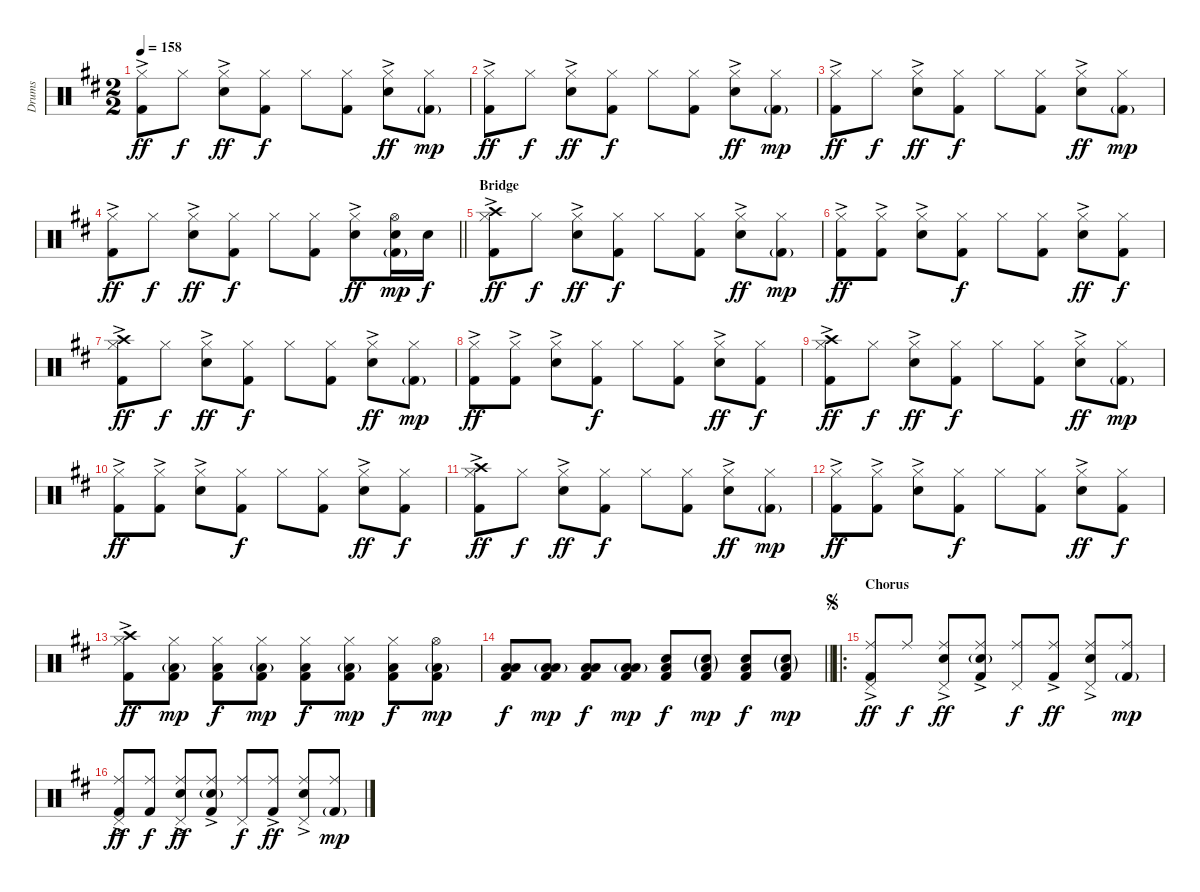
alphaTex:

\track ("Drums" "Drums") {instrument percussion}
\staff {score}
\articulation defaults
\ts (2 2)
\tempo 158
\clef neutral
\ks d
("Hi-Hat (closed)" "Kick (hit) 2"{ac}).8{dy ff} "Hi-Hat (closed)".8{dy f} ("Hi-Hat (closed)" "Snare (hit) 2"{ac}).8{dy ff} ("Hi-Hat (closed)" "Kick (hit) 2").8{dy f} "Hi-Hat (closed)".8 ("Hi-Hat (closed)" "Kick (hit) 2").8 ("Hi-Hat (closed)" "Snare (hit) 2"{ac}).8{dy ff} ("Hi-Hat (closed)" "Kick (hit) 2"{g}).8{dy mp} |
("Hi-Hat (closed)" "Kick (hit) 2"{ac}).8{dy ff} "Hi-Hat (closed)".8{dy f} ("Hi-Hat (closed)" "Snare (hit) 2"{ac}).8{dy ff} ("Hi-Hat (closed)" "Kick (hit) 2").8{dy f} "Hi-Hat (closed)".8 ("Hi-Hat (closed)" "Kick (hit) 2").8 ("Hi-Hat (closed)" "Snare (hit) 2"{ac}).8{dy ff} ("Hi-Hat (closed)" "Kick (hit) 2"{g}).8{dy mp} |
("Hi-Hat (closed)" "Kick (hit) 2"{ac}).8{dy ff} "Hi-Hat (closed)".8{dy f} ("Hi-Hat (closed)" "Snare (hit) 2"{ac}).8{dy ff} ("Hi-Hat (closed)" "Kick (hit) 2").8{dy f} "Hi-Hat (closed)".8 ("Hi-Hat (closed)" "Kick (hit) 2").8 ("Hi-Hat (closed)" "Snare (hit) 2"{ac}).8{dy ff} ("Hi-Hat (closed)" "Kick (hit) 2"{g}).8{dy mp} |
\barLineRight lightlight
("Hi-Hat (closed)" "Kick (hit) 2"{ac}).8{dy ff} "Hi-Hat (closed)".8{dy f} ("Hi-Hat (closed)" "Snare (hit) 2"{ac}).8{dy ff} ("Hi-Hat (closed)" "Kick (hit) 2").8{dy f} "Hi-Hat (closed)".8 ("Hi-Hat (closed)" "Kick (hit) 2").8 ("Hi-Hat (closed)" "Snare (hit) 2"{ac}).8{dy ff} ("Hi-Hat (open)" "Snare (hit) 2" "Kick (hit) 2"{g}).16{dy mp} "Snare (hit) 2".16{dy f} |
\section ("" "Bridge")
("Hi-Hat (closed)" "Crash high (hit)" "Kick (hit) 2"{ac}).8{dy ff} "Hi-Hat (closed)".8{dy f} ("Hi-Hat (closed)" "Snare (hit) 2"{ac}).8{dy ff} ("Hi-Hat (closed)" "Kick (hit) 2").8{dy f} "Hi-Hat (closed)".8 ("Hi-Hat (closed)" "Kick (hit) 2").8 ("Hi-Hat (closed)" "Snare (hit) 2"{ac}).8{dy ff} ("Hi-Hat (closed)" "Kick (hit) 2"{g}).8{dy mp} |
("Hi-Hat (closed)" "Kick (hit) 2"{ac}).8{dy ff} ("Hi-Hat (closed)" "Kick (hit) 2"{ac}).8 ("Hi-Hat (closed)" "Snare (hit) 2"{ac}).8 ("Hi-Hat (closed)" "Kick (hit) 2").8{dy f} "Hi-Hat (closed)".8 ("Hi-Hat (closed)" "Kick (hit) 2").8 ("Hi-Hat (closed)" "Snare (hit) 2"{ac}).8{dy ff} ("Hi-Hat (closed)" "Kick (hit) 2").8{dy f} |
("Hi-Hat (closed)" "Crash high (hit)" "Kick (hit) 2"{ac}).8{dy ff} "Hi-Hat (closed)".8{dy f} ("Hi-Hat (closed)" "Snare (hit) 2"{ac}).8{dy ff} ("Hi-Hat (closed)" "Kick (hit) 2").8{dy f} "Hi-Hat (closed)".8 ("Hi-Hat (closed)" "Kick (hit) 2").8 ("Hi-Hat (closed)" "Snare (hit) 2"{ac}).8{dy ff} ("Hi-Hat (closed)" "Kick (hit) 2"{g}).8{dy mp} |
("Hi-Hat (closed)" "Kick (hit) 2"{ac}).8{dy ff} ("Hi-Hat (closed)" "Kick (hit) 2"{ac}).8 ("Hi-Hat (closed)" "Snare (hit) 2"{ac}).8 ("Hi-Hat (closed)" "Kick (hit) 2").8{dy f} "Hi-Hat (closed)".8 ("Hi-Hat (closed)" "Kick (hit) 2").8 ("Hi-Hat (closed)" "Snare (hit) 2"{ac}).8{dy ff} ("Hi-Hat (closed)" "Kick (hit) 2").8{dy f} |
("Hi-Hat (closed)" "Crash high (hit)" "Kick (hit) 2"{ac}).8{dy ff} "Hi-Hat (closed)".8{dy f} ("Hi-Hat (closed)" "Snare (hit) 2"{ac}).8{dy ff} ("Hi-Hat (closed)" "Kick (hit) 2").8{dy f} "Hi-Hat (closed)".8 ("Hi-Hat (closed)" "Kick (hit) 2").8 ("Hi-Hat (closed)" "Snare (hit) 2"{ac}).8{dy ff} ("Hi-Hat (closed)" "Kick (hit) 2"{g}).8{dy mp} |
("Hi-Hat (closed)" "Kick (hit) 2"{ac}).8{dy ff} ("Hi-Hat (closed)" "Kick (hit) 2"{ac}).8 ("Hi-Hat (closed)" "Snare (hit) 2"{ac}).8 ("Hi-Hat (closed)" "Kick (hit) 2").8{dy f} "Hi-Hat (closed)".8 ("Hi-Hat (closed)" "Kick (hit) 2").8 ("Hi-Hat (closed)" "Snare (hit) 2"{ac}).8{dy ff} ("Hi-Hat (closed)" "Kick (hit) 2").8{dy f} |
("Hi-Hat (closed)" "Crash high (hit)" "Kick (hit) 2"{ac}).8{dy ff} "Hi-Hat (closed)".8{dy f} ("Hi-Hat (closed)" "Snare (hit) 2"{ac}).8{dy ff} ("Hi-Hat (closed)" "Kick (hit) 2").8{dy f} "Hi-Hat (closed)".8 ("Hi-Hat (closed)" "Kick (hit) 2").8 ("Hi-Hat (closed)" "Snare (hit) 2"{ac}).8{dy ff} ("Hi-Hat (closed)" "Kick (hit) 2"{g}).8{dy mp} |
("Hi-Hat (closed)" "Kick (hit) 2"{ac}).8{dy ff} ("Hi-Hat (closed)" "Kick (hit) 2"{ac}).8 ("Hi-Hat (closed)" "Snare (hit) 2"{ac}).8 ("Hi-Hat (closed)" "Kick (hit) 2").8{dy f} "Hi-Hat (closed)".8 ("Hi-Hat (closed)" "Kick (hit) 2").8 ("Hi-Hat (closed)" "Snare (hit) 2"{ac}).8{dy ff} ("Hi-Hat (closed)" "Kick (hit) 2").8{dy f} |
("Hi-Hat (closed)" "Crash high (hit)" "Kick (hit) 2"{ac}).8{dy ff} ("Hi-Hat (closed)" "Low Floor Tom (hit)"{g} "Kick (hit) 2").8{dy mp} ("Hi-Hat (closed)" "Low Floor Tom (hit)" "Kick (hit) 2").8{dy f} ("Hi-Hat (closed)" "Low Floor Tom (hit)"{g} "Kick (hit) 2").8{dy mp} ("Hi-Hat (closed)" "Low Floor Tom (hit)" "Kick (hit) 2").8{dy f} ("Hi-Hat (closed)" "Low Floor Tom (hit)"{g} "Kick (hit) 2").8{dy mp} ("Hi-Hat (closed)" "Low Floor Tom (hit)" "Kick (hit) 2").8{dy f} ("Hi-Hat (open)" "Low Floor Tom (hit)"{g} "Kick (hit) 2").8{dy mp} |
\barLineRight lightlight
("Low Tom (hit)" "Low Floor Tom (hit)" "Kick (hit) 2").8{dy f} ("Low Tom (hit)"{g} "Low Floor Tom (hit)"{g} "Kick (hit) 2").8{dy mp} ("Low Tom (hit)" "Low Floor Tom (hit)" "Kick (hit) 2").8{dy f} ("Low Tom (hit)"{g} "Low Floor Tom (hit)"{g} "Kick (hit) 2").8{dy mp} ("Snare (hit) 2" "Low Floor Tom (hit)" "Kick (hit) 2").8{dy f} ("Snare (hit) 2"{g} "Low Floor Tom (hit)"{g} "Kick (hit) 2").8{dy mp} ("Snare (hit) 2" "Low Floor Tom (hit)" "Kick (hit) 2").8{dy f} ("Snare (hit) 2"{g} "Low Floor Tom (hit)"{g} "Kick (hit) 2").8{dy mp} |
\ro
\section ("" "Chorus")
\jump segno
("Ride (middle)" "Pedal Hi-Hat (hit)" "Kick (hit) 2"{ac}).8{dy ff} "Ride (middle)".8{dy f} ("Ride (middle)" "Pedal Hi-Hat (hit)" "Snare (hit) 2"{ac}).8{dy ff} ("Ride (middle)" "Snare (hit) 2"{g} "Kick (hit) 2"{ac}).8 ("Ride (middle)" "Pedal Hi-Hat (hit)").8{dy f} ("Ride (middle)" "Kick (hit) 2"{ac}).8{dy ff} ("Ride (middle)" "Pedal Hi-Hat (hit)" "Snare (hit) 2"{ac}).8 ("Ride (middle)" "Kick (hit) 2"{g}).8{dy mp} |
("Ride (middle)" "Pedal Hi-Hat (hit)" "Kick (hit) 2"{ac}).8{dy ff} ("Ride (middle)" "Kick (hit) 2").8{dy f} ("Ride (middle)" "Pedal Hi-Hat (hit)" "Snare (hit) 2"{ac}).8{dy ff} ("Ride (middle)" "Snare (hit) 2"{g} "Kick (hit) 2"{ac}).8 ("Ride (middle)" "Pedal Hi-Hat (hit)").8{dy f} ("Ride (middle)" "Kick (hit) 2"{ac}).8{dy ff} ("Ride (middle)" "Pedal Hi-Hat (hit)" "Snare (hit) 2"{ac}).8 ("Ride (middle)" "Kick (hit) 2"{g}).8{dy mp}
